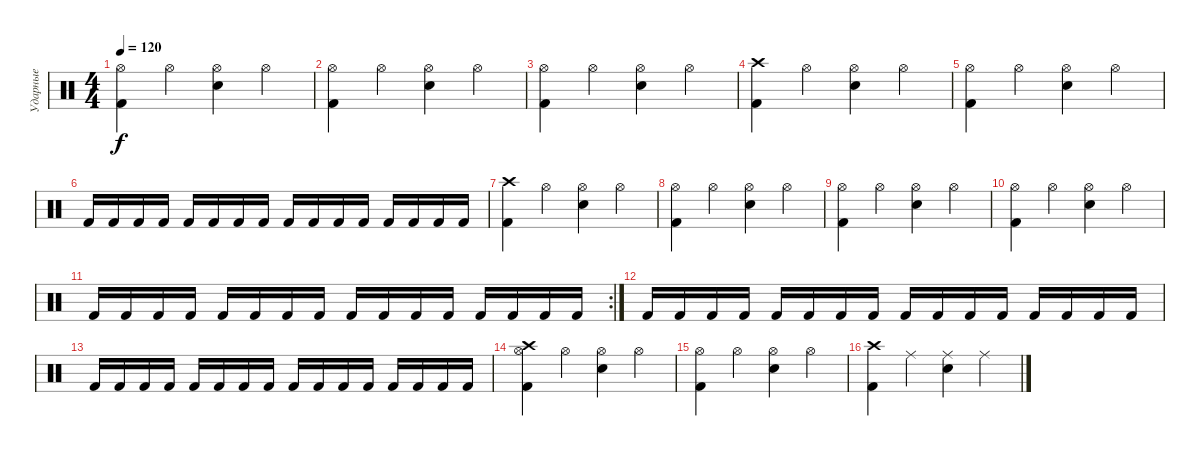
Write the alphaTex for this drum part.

\track ("Ударные" "Ударные") {instrument percussion}
\staff {score}
\articulation defaults
\ts (4 4)
\tempo 120
\clef neutral
\ks c
("Kick (hit) 2" "Hi-Hat (open)").4{dy f} "Hi-Hat (open)".4 ("Hi-Hat (open)" "Electric Snare (hit)").4 "Hi-Hat (open)".4 |
("Kick (hit) 2" "Hi-Hat (open)").4 "Hi-Hat (open)".4 ("Hi-Hat (open)" "Electric Snare (hit)").4 "Hi-Hat (open)".4 |
("Kick (hit) 2" "Hi-Hat (open)").4 "Hi-Hat (open)".4 ("Hi-Hat (open)" "Electric Snare (hit)").4 "Hi-Hat (open)".4 |
("Kick (hit) 2" "Crash high (hit)").4 "Hi-Hat (open)".4 ("Hi-Hat (open)" "Electric Snare (hit)").4 "Hi-Hat (open)".4 |
("Kick (hit) 2" "Hi-Hat (open)").4 "Hi-Hat (open)".4 ("Hi-Hat (open)" "Electric Snare (hit)").4 "Hi-Hat (open)".4 |
"Kick (hit) 2".16 "Kick (hit) 2".16 "Kick (hit) 2".16 "Kick (hit) 2".16 "Kick (hit) 2".16 "Kick (hit) 2".16 "Kick (hit) 2".16 "Kick (hit) 2".16 "Kick (hit) 2".16 "Kick (hit) 2".16 "Kick (hit) 2".16 "Kick (hit) 2".16 "Kick (hit) 2".16 "Kick (hit) 2".16 "Kick (hit) 2".16 "Kick (hit) 2".16 |
("Kick (hit) 2" "Crash high (hit)").4 "Hi-Hat (open)".4 ("Hi-Hat (open)" "Electric Snare (hit)").4 "Hi-Hat (open)".4 |
("Kick (hit) 2" "Hi-Hat (open)").4 "Hi-Hat (open)".4 ("Hi-Hat (open)" "Electric Snare (hit)").4 "Hi-Hat (open)".4 |
("Kick (hit) 2" "Hi-Hat (open)").4 "Hi-Hat (open)".4 ("Hi-Hat (open)" "Electric Snare (hit)").4 "Hi-Hat (open)".4 |
("Kick (hit) 2" "Hi-Hat (open)").4 "Hi-Hat (open)".4 ("Hi-Hat (open)" "Electric Snare (hit)").4 "Hi-Hat (open)".4 |
\rc 2 "Kick (hit) 2".16 "Kick (hit) 2".16 "Kick (hit) 2".16 "Kick (hit) 2".16 "Kick (hit) 2".16 "Kick (hit) 2".16 "Kick (hit) 2".16 "Kick (hit) 2".16 "Kick (hit) 2".16 "Kick (hit) 2".16 "Kick (hit) 2".16 "Kick (hit) 2".16 "Kick (hit) 2".16 "Kick (hit) 2".16 "Kick (hit) 2".16 "Kick (hit) 2".16
|
"Kick (hit) 2".16 "Kick (hit) 2".16 "Kick (hit) 2".16 "Kick (hit) 2".16 "Kick (hit) 2".16 "Kick (hit) 2".16 "Kick (hit) 2".16 "Kick (hit) 2".16 "Kick (hit) 2".16 "Kick (hit) 2".16 "Kick (hit) 2".16 "Kick (hit) 2".16 "Kick (hit) 2".16 "Kick (hit) 2".16 "Kick (hit) 2".16 "Kick (hit) 2".16 |
"Kick (hit) 2".16 "Kick (hit) 2".16 "Kick (hit) 2".16 "Kick (hit) 2".16 "Kick (hit) 2".16 "Kick (hit) 2".16 "Kick (hit) 2".16 "Kick (hit) 2".16 "Kick (hit) 2".16 "Kick (hit) 2".16 "Kick (hit) 2".16 "Kick (hit) 2".16 "Kick (hit) 2".16 "Kick (hit) 2".16 "Kick (hit) 2".16 "Kick (hit) 2".16 |
("Kick (hit) 2" "Hi-Hat (open)" "Crash high (hit)").4 "Hi-Hat (open)".4 ("Hi-Hat (open)" "Electric Snare (hit)").4 "Hi-Hat (open)".4 |
("Kick (hit) 2" "Hi-Hat (open)").4 "Hi-Hat (open)".4 ("Hi-Hat (open)" "Electric Snare (hit)").4 "Hi-Hat (open)".4 |
("Kick (hit) 2" "Crash high (hit)").4 "Ride (middle)".4 ("Ride (middle)" "Electric Snare (hit)").4 "Ride (middle)".4
